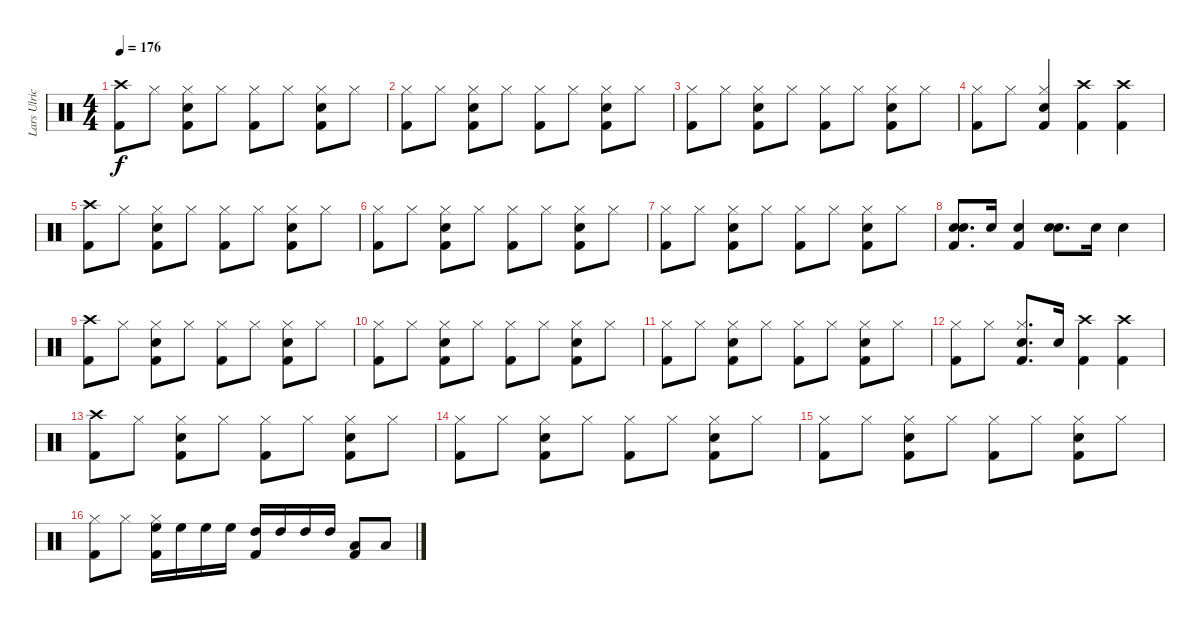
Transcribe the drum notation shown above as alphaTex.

\track ("Lars Ulrich" "Lars Ulric") {instrument percussion}
\staff {score}
\articulation defaults
\ts (4 4)
\tempo 176
\clef neutral
\ks c
("Crash high (hit)" "Kick (hit) 2").8{dy f} "Hi-Hat (closed)".8 ("Hi-Hat (closed)" "Snare (hit) 2" "Kick (hit) 2").8 "Hi-Hat (closed)".8 ("Hi-Hat (closed)" "Kick (hit) 2").8 "Hi-Hat (closed)".8 ("Hi-Hat (closed)" "Snare (hit) 2" "Kick (hit) 2").8 "Hi-Hat (closed)".8 |
("Hi-Hat (closed)" "Kick (hit) 2").8 "Hi-Hat (closed)".8 ("Hi-Hat (closed)" "Snare (hit) 2" "Kick (hit) 2").8 "Hi-Hat (closed)".8 ("Hi-Hat (closed)" "Kick (hit) 2").8 "Hi-Hat (closed)".8 ("Hi-Hat (closed)" "Snare (hit) 2" "Kick (hit) 2").8 "Hi-Hat (closed)".8 |
("Hi-Hat (closed)" "Kick (hit) 2").8 "Hi-Hat (closed)".8 ("Hi-Hat (closed)" "Snare (hit) 2" "Kick (hit) 2").8 "Hi-Hat (closed)".8 ("Hi-Hat (closed)" "Kick (hit) 2").8 "Hi-Hat (closed)".8 ("Hi-Hat (closed)" "Snare (hit) 2" "Kick (hit) 2").8 "Hi-Hat (closed)".8 |
("Hi-Hat (closed)" "Kick (hit) 2").8 "Hi-Hat (closed)".8 ("Hi-Hat (closed)" "Snare (hit) 2" "Kick (hit) 2").4 ("Crash high (hit)" "Kick (hit) 2").4 ("Crash high (hit)" "Kick (hit) 2").4 |
("Crash high (hit)" "Kick (hit) 2").8 "Hi-Hat (closed)".8 ("Hi-Hat (closed)" "Snare (hit) 2" "Kick (hit) 2").8 "Hi-Hat (closed)".8 ("Hi-Hat (closed)" "Kick (hit) 2").8 "Hi-Hat (closed)".8 ("Hi-Hat (closed)" "Snare (hit) 2" "Kick (hit) 2").8 "Hi-Hat (closed)".8 |
("Hi-Hat (closed)" "Kick (hit) 2").8 "Hi-Hat (closed)".8 ("Hi-Hat (closed)" "Snare (hit) 2" "Kick (hit) 2").8 "Hi-Hat (closed)".8 ("Hi-Hat (closed)" "Kick (hit) 2").8 "Hi-Hat (closed)".8 ("Hi-Hat (closed)" "Snare (hit) 2" "Kick (hit) 2").8 "Hi-Hat (closed)".8 |
("Hi-Hat (closed)" "Kick (hit) 2").8 "Hi-Hat (closed)".8 ("Hi-Hat (closed)" "Snare (hit) 2" "Kick (hit) 2").8 "Hi-Hat (closed)".8 ("Hi-Hat (closed)" "Kick (hit) 2").8 "Hi-Hat (closed)".8 ("Hi-Hat (closed)" "Snare (hit) 2" "Kick (hit) 2").8 "Hi-Hat (closed)".8 |
("Snare (hit) 2" "Snare (hit) 2" "Kick (hit) 2").8{d} "Snare (hit) 2".16 ("Snare (hit) 2" "Kick (hit) 2").4 ("Snare (hit) 2" "Snare (hit) 2").8{d} "Snare (hit) 2".16 "Snare (hit) 2".4 |
("Crash high (hit)" "Kick (hit) 2").8 "Hi-Hat (closed)".8 ("Hi-Hat (closed)" "Snare (hit) 2" "Kick (hit) 2").8 "Hi-Hat (closed)".8 ("Hi-Hat (closed)" "Kick (hit) 2").8 "Hi-Hat (closed)".8 ("Hi-Hat (closed)" "Snare (hit) 2" "Kick (hit) 2").8 "Hi-Hat (closed)".8 |
("Hi-Hat (closed)" "Kick (hit) 2").8 "Hi-Hat (closed)".8 ("Hi-Hat (closed)" "Snare (hit) 2" "Kick (hit) 2").8 "Hi-Hat (closed)".8 ("Hi-Hat (closed)" "Kick (hit) 2").8 "Hi-Hat (closed)".8 ("Hi-Hat (closed)" "Snare (hit) 2" "Kick (hit) 2").8 "Hi-Hat (closed)".8 |
("Hi-Hat (closed)" "Kick (hit) 2").8 "Hi-Hat (closed)".8 ("Hi-Hat (closed)" "Snare (hit) 2" "Kick (hit) 2").8 "Hi-Hat (closed)".8 ("Hi-Hat (closed)" "Kick (hit) 2").8 "Hi-Hat (closed)".8 ("Hi-Hat (closed)" "Snare (hit) 2" "Kick (hit) 2").8 "Hi-Hat (closed)".8 |
("Hi-Hat (closed)" "Kick (hit) 2").8 "Hi-Hat (closed)".8 ("Hi-Hat (closed)" "Snare (hit) 2" "Kick (hit) 2").8{d} "Snare (hit) 2".16 ("Crash high (hit)" "Kick (hit) 2").4 ("Crash high (hit)" "Kick (hit) 2").4 |
("Crash high (hit)" "Kick (hit) 2").8 "Hi-Hat (closed)".8 ("Hi-Hat (closed)" "Snare (hit) 2" "Kick (hit) 2").8 "Hi-Hat (closed)".8 ("Hi-Hat (closed)" "Kick (hit) 2").8 "Hi-Hat (closed)".8 ("Hi-Hat (closed)" "Snare (hit) 2" "Kick (hit) 2").8 "Hi-Hat (closed)".8 |
("Hi-Hat (closed)" "Kick (hit) 2").8 "Hi-Hat (closed)".8 ("Hi-Hat (closed)" "Snare (hit) 2" "Kick (hit) 2").8 "Hi-Hat (closed)".8 ("Hi-Hat (closed)" "Kick (hit) 2").8 "Hi-Hat (closed)".8 ("Hi-Hat (closed)" "Snare (hit) 2" "Kick (hit) 2").8 "Hi-Hat (closed)".8 |
("Hi-Hat (closed)" "Kick (hit) 2").8 "Hi-Hat (closed)".8 ("Hi-Hat (closed)" "Snare (hit) 2" "Kick (hit) 2").8 "Hi-Hat (closed)".8 ("Hi-Hat (closed)" "Kick (hit) 2").8 "Hi-Hat (closed)".8 ("Hi-Hat (closed)" "Snare (hit) 2" "Kick (hit) 2").8 "Hi-Hat (closed)".8 |
("Hi-Hat (closed)" "Kick (hit) 2").8 "Hi-Hat (closed)".8 ("Hi-Hat (closed)" "High Floor Tom (hit)" "Kick (hit) 2").16 "High Floor Tom (hit)".16 "High Floor Tom (hit)".16 "High Floor Tom (hit)".16 ("High Tom (hit)" "Kick (hit) 2").16 "High Tom (hit)".16 "High Tom (hit)".16 "High Tom (hit)".16 ("Low Tom (hit)" "Kick (hit) 2").8 "Low Tom (hit)".8
